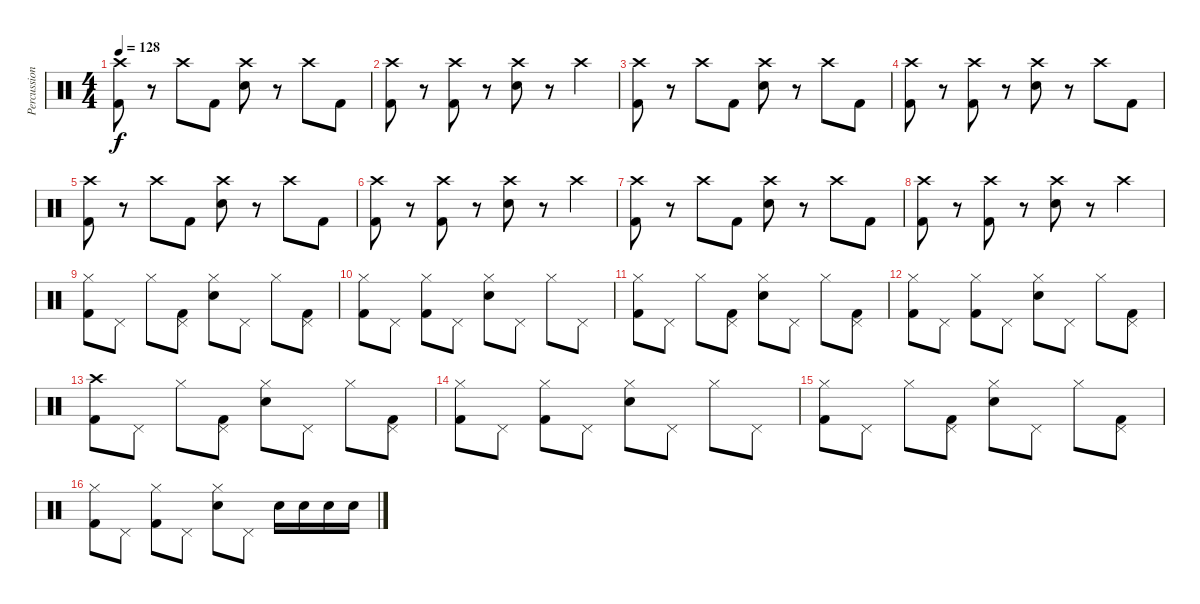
\track ("Percussion" "Percussion") {instrument percussion}
\staff {score}
\articulation defaults
\ts (4 4)
\tempo 128
\clef neutral
\ks c
("Crash high (hit)" "Kick (hit) 2").8{dy f} r.8 "Crash high (hit)".8 "Kick (hit) 2".8 ("Crash high (hit)" "Electric Snare (hit)").8 r.8 "Crash high (hit)".8 "Kick (hit) 2".8 |
("Crash high (hit)" "Kick (hit) 2").8 r.8 ("Crash high (hit)" "Kick (hit) 2").8 r.8 ("Crash high (hit)" "Electric Snare (hit)").8 r.8 "Crash high (hit)".4 |
("Crash high (hit)" "Kick (hit) 2").8 r.8 "Crash high (hit)".8 "Kick (hit) 2".8 ("Crash high (hit)" "Electric Snare (hit)").8 r.8 "Crash high (hit)".8 "Kick (hit) 2".8 |
("Crash high (hit)" "Kick (hit) 2").8 r.8 ("Crash high (hit)" "Kick (hit) 2").8 r.8 ("Crash high (hit)" "Electric Snare (hit)").8 r.8 "Crash high (hit)".8 "Kick (hit) 2".8 |
("Crash high (hit)" "Kick (hit) 2").8 r.8 "Crash high (hit)".8 "Kick (hit) 2".8 ("Crash high (hit)" "Electric Snare (hit)").8 r.8 "Crash high (hit)".8 "Kick (hit) 2".8 |
("Crash high (hit)" "Kick (hit) 2").8 r.8 ("Crash high (hit)" "Kick (hit) 2").8 r.8 ("Crash high (hit)" "Electric Snare (hit)").8 r.8 "Crash high (hit)".4 |
("Crash high (hit)" "Kick (hit) 2").8 r.8 "Crash high (hit)".8 "Kick (hit) 2".8 ("Crash high (hit)" "Electric Snare (hit)").8 r.8 "Crash high (hit)".8 "Kick (hit) 2".8 |
("Crash high (hit)" "Kick (hit) 2").8 r.8 ("Crash high (hit)" "Kick (hit) 2").8 r.8 ("Crash high (hit)" "Electric Snare (hit)").8 r.8 "Crash high (hit)".4 |
("Hi-Hat (closed)" "Kick (hit) 2").8 "Pedal Hi-Hat (hit)".8 "Hi-Hat (closed)".8 ("Pedal Hi-Hat (hit)" "Kick (hit) 2").8 ("Hi-Hat (closed)" "Electric Snare (hit)").8 "Pedal Hi-Hat (hit)".8 "Hi-Hat (closed)".8 ("Pedal Hi-Hat (hit)" "Kick (hit) 2").8 |
("Hi-Hat (closed)" "Kick (hit) 2").8 "Pedal Hi-Hat (hit)".8 ("Hi-Hat (closed)" "Kick (hit) 2").8 "Pedal Hi-Hat (hit)".8 ("Hi-Hat (closed)" "Electric Snare (hit)").8 "Pedal Hi-Hat (hit)".8 "Hi-Hat (closed)".8 "Pedal Hi-Hat (hit)".8 |
("Hi-Hat (closed)" "Kick (hit) 2").8 "Pedal Hi-Hat (hit)".8 "Hi-Hat (closed)".8 ("Pedal Hi-Hat (hit)" "Kick (hit) 2").8 ("Hi-Hat (closed)" "Electric Snare (hit)").8 "Pedal Hi-Hat (hit)".8 "Hi-Hat (closed)".8 ("Pedal Hi-Hat (hit)" "Kick (hit) 2").8 |
("Hi-Hat (closed)" "Kick (hit) 2").8 "Pedal Hi-Hat (hit)".8 ("Hi-Hat (closed)" "Kick (hit) 2").8 "Pedal Hi-Hat (hit)".8 ("Hi-Hat (closed)" "Electric Snare (hit)").8 "Pedal Hi-Hat (hit)".8 "Hi-Hat (closed)".8 ("Pedal Hi-Hat (hit)" "Kick (hit) 2").8 |
("Crash high (hit)" "Kick (hit) 2").8 "Pedal Hi-Hat (hit)".8 "Hi-Hat (closed)".8 ("Pedal Hi-Hat (hit)" "Kick (hit) 2").8 ("Hi-Hat (closed)" "Electric Snare (hit)").8 "Pedal Hi-Hat (hit)".8 "Hi-Hat (closed)".8 ("Pedal Hi-Hat (hit)" "Kick (hit) 2").8 |
("Hi-Hat (closed)" "Kick (hit) 2").8 "Pedal Hi-Hat (hit)".8 ("Hi-Hat (closed)" "Kick (hit) 2").8 "Pedal Hi-Hat (hit)".8 ("Hi-Hat (closed)" "Electric Snare (hit)").8 "Pedal Hi-Hat (hit)".8 "Hi-Hat (closed)".8 "Pedal Hi-Hat (hit)".8 |
("Hi-Hat (closed)" "Kick (hit) 2").8 "Pedal Hi-Hat (hit)".8 "Hi-Hat (closed)".8 ("Pedal Hi-Hat (hit)" "Kick (hit) 2").8 ("Hi-Hat (closed)" "Electric Snare (hit)").8 "Pedal Hi-Hat (hit)".8 "Hi-Hat (closed)".8 ("Pedal Hi-Hat (hit)" "Kick (hit) 2").8 |
("Hi-Hat (closed)" "Kick (hit) 2").8 "Pedal Hi-Hat (hit)".8 ("Hi-Hat (closed)" "Kick (hit) 2").8 "Pedal Hi-Hat (hit)".8 ("Hi-Hat (closed)" "Electric Snare (hit)").8 "Pedal Hi-Hat (hit)".8 "Electric Snare (hit)".16 "Electric Snare (hit)".16 "Electric Snare (hit)".16 "Electric Snare (hit)".16
